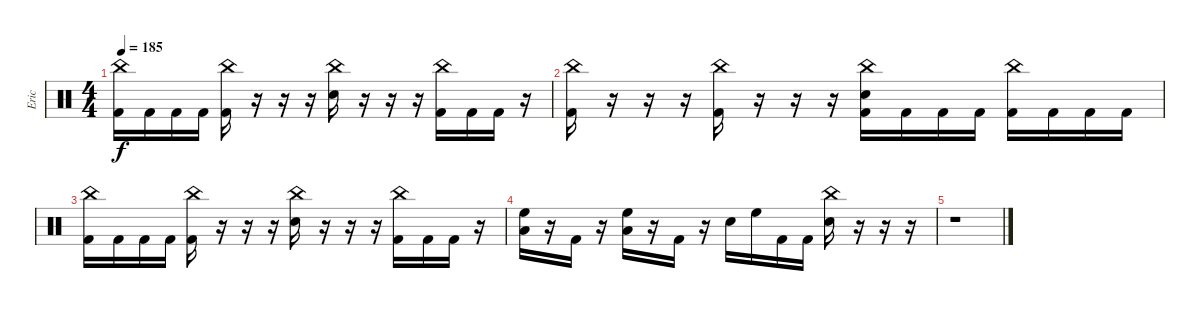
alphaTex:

\track ("Eric" "Eric") {instrument percussion}
\staff {score}
\articulation defaults
\ts (4 4)
\tempo 185
\clef neutral
\ks c
("China (hit)" "Kick (hit) 2").16{dy f} "Kick (hit) 2".16 "Kick (hit) 2".16 "Kick (hit) 2".16 ("China (hit)" "Kick (hit) 2").16 r.16 r.16 r.16 ("China (hit)" "Electric Snare (hit)").16 r.16 r.16 r.16 ("China (hit)" "Kick (hit) 2").16 "Kick (hit) 2".16 "Kick (hit) 2".16 r.16 |
("China (hit)" "Kick (hit) 2").16 r.16 r.16 r.16 ("China (hit)" "Kick (hit) 2").16 r.16 r.16 r.16 ("China (hit)" "Electric Snare (hit)" "Kick (hit) 2").16 "Kick (hit) 2".16 "Kick (hit) 2".16 "Kick (hit) 2".16 ("China (hit)" "Kick (hit) 2").16 "Kick (hit) 2".16 "Kick (hit) 2".16 "Kick (hit) 2".16 |
("China (hit)" "Kick (hit) 2").16 "Kick (hit) 2".16 "Kick (hit) 2".16 "Kick (hit) 2".16 ("China (hit)" "Kick (hit) 2").16 r.16 r.16 r.16 ("China (hit)" "Electric Snare (hit)").16 r.16 r.16 r.16 ("China (hit)" "Kick (hit) 2").16 "Kick (hit) 2".16 "Kick (hit) 2".16 r.16 |
("High Floor Tom (hit)" "Low Floor Tom (hit)").16 r.16 "Kick (hit) 2".16 r.16 ("High Floor Tom (hit)" "Low Floor Tom (hit)").16 r.16 "Kick (hit) 2".16 r.16 "Electric Snare (hit)".16 "High Floor Tom (hit)".16 "Kick (hit) 2".16 "Kick (hit) 2".16 ("China (hit)" "Electric Snare (hit)").16 r.16 r.16 r.16 |
r.1
